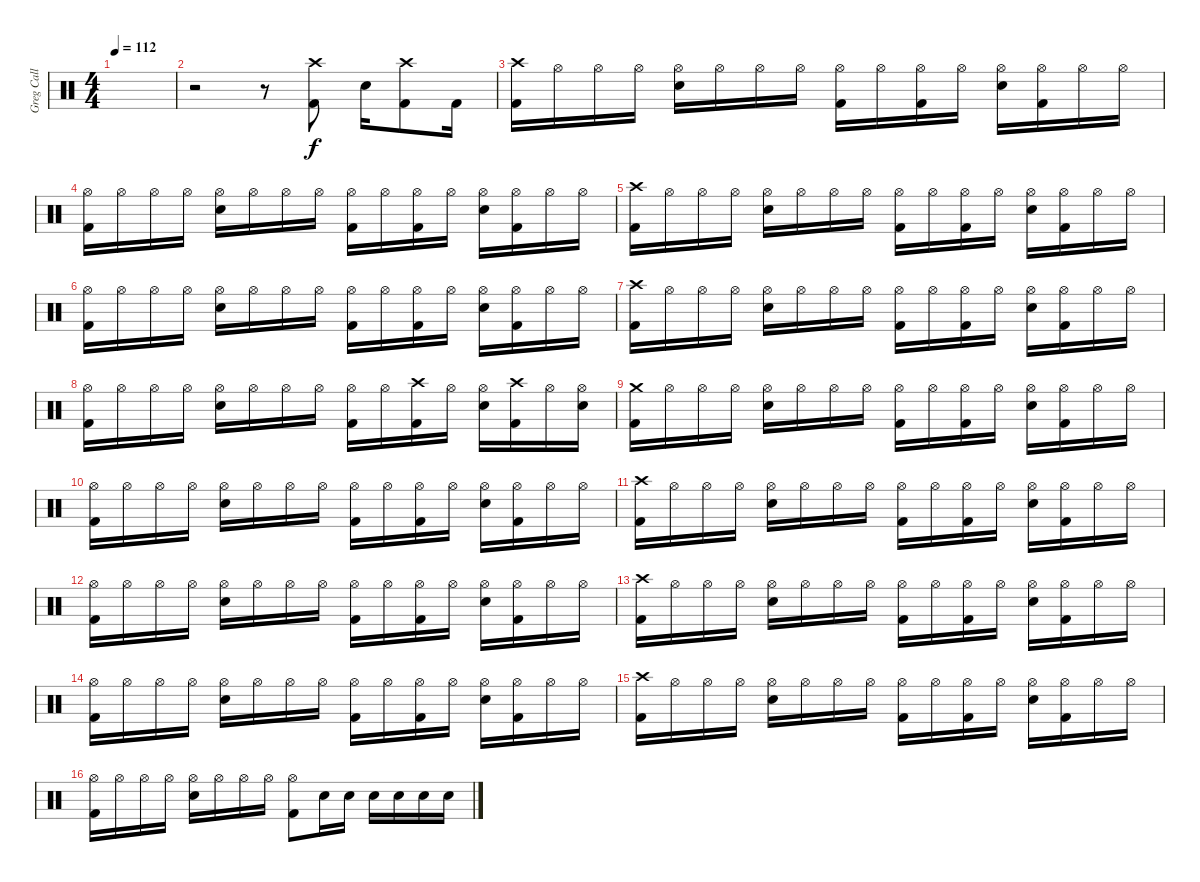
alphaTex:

\track ("Greg Call (Drums)" "Greg Call ") {instrument percussion}
\staff {score}
\articulation defaults
\ts (4 4)
\tempo 112
\clef neutral
\ks c
|
r.2 r.8 ("Crash high (hit)" "Kick (hit) 2").8 "Snare (hit) 2".16 ("Crash high (hit)" "Kick (hit) 2").8 "Kick (hit) 2".16 |
("Crash high (hit)" "Kick (hit) 2").16 "Hi-Hat (open)".16 "Hi-Hat (open)".16 "Hi-Hat (open)".16 ("Hi-Hat (open)" "Snare (hit) 2").16 "Hi-Hat (open)".16 "Hi-Hat (open)".16 "Hi-Hat (open)".16 ("Hi-Hat (open)" "Kick (hit) 2").16 "Hi-Hat (open)".16 ("Hi-Hat (open)" "Kick (hit) 2").16 "Hi-Hat (open)".16 ("Hi-Hat (open)" "Snare (hit) 2").16 ("Hi-Hat (open)" "Kick (hit) 2").16 "Hi-Hat (open)".16 "Hi-Hat (open)".16 |
("Hi-Hat (open)" "Kick (hit) 2").16 "Hi-Hat (open)".16 "Hi-Hat (open)".16 "Hi-Hat (open)".16 ("Hi-Hat (open)" "Snare (hit) 2").16 "Hi-Hat (open)".16 "Hi-Hat (open)".16 "Hi-Hat (open)".16 ("Hi-Hat (open)" "Kick (hit) 2").16 "Hi-Hat (open)".16 ("Hi-Hat (open)" "Kick (hit) 2").16 "Hi-Hat (open)".16 ("Hi-Hat (open)" "Snare (hit) 2").16 ("Hi-Hat (open)" "Kick (hit) 2").16 "Hi-Hat (open)".16 "Hi-Hat (open)".16 |
("Crash high (hit)" "Kick (hit) 2").16 "Hi-Hat (open)".16 "Hi-Hat (open)".16 "Hi-Hat (open)".16 ("Hi-Hat (open)" "Snare (hit) 2").16 "Hi-Hat (open)".16 "Hi-Hat (open)".16 "Hi-Hat (open)".16 ("Hi-Hat (open)" "Kick (hit) 2").16 "Hi-Hat (open)".16 ("Hi-Hat (open)" "Kick (hit) 2").16 "Hi-Hat (open)".16 ("Hi-Hat (open)" "Snare (hit) 2").16 ("Hi-Hat (open)" "Kick (hit) 2").16 "Hi-Hat (open)".16 "Hi-Hat (open)".16 |
("Hi-Hat (open)" "Kick (hit) 2").16 "Hi-Hat (open)".16 "Hi-Hat (open)".16 "Hi-Hat (open)".16 ("Hi-Hat (open)" "Snare (hit) 2").16 "Hi-Hat (open)".16 "Hi-Hat (open)".16 "Hi-Hat (open)".16 ("Hi-Hat (open)" "Kick (hit) 2").16 "Hi-Hat (open)".16 ("Hi-Hat (open)" "Kick (hit) 2").16 "Hi-Hat (open)".16 ("Hi-Hat (open)" "Snare (hit) 2").16 ("Hi-Hat (open)" "Kick (hit) 2").16 "Hi-Hat (open)".16 "Hi-Hat (open)".16 |
("Crash high (hit)" "Kick (hit) 2").16 "Hi-Hat (open)".16 "Hi-Hat (open)".16 "Hi-Hat (open)".16 ("Hi-Hat (open)" "Snare (hit) 2").16 "Hi-Hat (open)".16 "Hi-Hat (open)".16 "Hi-Hat (open)".16 ("Hi-Hat (open)" "Kick (hit) 2").16 "Hi-Hat (open)".16 ("Hi-Hat (open)" "Kick (hit) 2").16 "Hi-Hat (open)".16 ("Hi-Hat (open)" "Snare (hit) 2").16 ("Hi-Hat (open)" "Kick (hit) 2").16 "Hi-Hat (open)".16 "Hi-Hat (open)".16 |
("Hi-Hat (open)" "Kick (hit) 2").16 "Hi-Hat (open)".16 "Hi-Hat (open)".16 "Hi-Hat (open)".16 ("Hi-Hat (open)" "Snare (hit) 2").16 "Hi-Hat (open)".16 "Hi-Hat (open)".16 "Hi-Hat (open)".16 ("Hi-Hat (open)" "Kick (hit) 2").16 "Hi-Hat (open)".16 ("Crash high (hit)" "Kick (hit) 2").16 "Hi-Hat (open)".16 ("Hi-Hat (open)" "Snare (hit) 2").16 ("Crash high (hit)" "Kick (hit) 2").16 "Hi-Hat (open)".16 ("Hi-Hat (open)" "Snare (hit) 2").16 |
("Crash medium (hit)" "Kick (hit) 2").16 "Hi-Hat (open)".16 "Hi-Hat (open)".16 "Hi-Hat (open)".16 ("Hi-Hat (open)" "Snare (hit) 2").16 "Hi-Hat (open)".16 "Hi-Hat (open)".16 "Hi-Hat (open)".16 ("Hi-Hat (open)" "Kick (hit) 2").16 "Hi-Hat (open)".16 ("Hi-Hat (open)" "Kick (hit) 2").16 "Hi-Hat (open)".16 ("Hi-Hat (open)" "Snare (hit) 2").16 ("Hi-Hat (open)" "Kick (hit) 2").16 "Hi-Hat (open)".16 "Hi-Hat (open)".16 |
("Hi-Hat (open)" "Kick (hit) 2").16 "Hi-Hat (open)".16 "Hi-Hat (open)".16 "Hi-Hat (open)".16 ("Hi-Hat (open)" "Snare (hit) 2").16 "Hi-Hat (open)".16 "Hi-Hat (open)".16 "Hi-Hat (open)".16 ("Hi-Hat (open)" "Kick (hit) 2").16 "Hi-Hat (open)".16 ("Hi-Hat (open)" "Kick (hit) 2").16 "Hi-Hat (open)".16 ("Hi-Hat (open)" "Snare (hit) 2").16 ("Hi-Hat (open)" "Kick (hit) 2").16 "Hi-Hat (open)".16 "Hi-Hat (open)".16 |
("Crash high (hit)" "Kick (hit) 2").16 "Hi-Hat (open)".16 "Hi-Hat (open)".16 "Hi-Hat (open)".16 ("Hi-Hat (open)" "Snare (hit) 2").16 "Hi-Hat (open)".16 "Hi-Hat (open)".16 "Hi-Hat (open)".16 ("Hi-Hat (open)" "Kick (hit) 2").16 "Hi-Hat (open)".16 ("Hi-Hat (open)" "Kick (hit) 2").16 "Hi-Hat (open)".16 ("Hi-Hat (open)" "Snare (hit) 2").16 ("Hi-Hat (open)" "Kick (hit) 2").16 "Hi-Hat (open)".16 "Hi-Hat (open)".16 |
("Hi-Hat (open)" "Kick (hit) 2").16 "Hi-Hat (open)".16 "Hi-Hat (open)".16 "Hi-Hat (open)".16 ("Hi-Hat (open)" "Snare (hit) 2").16 "Hi-Hat (open)".16 "Hi-Hat (open)".16 "Hi-Hat (open)".16 ("Hi-Hat (open)" "Kick (hit) 2").16 "Hi-Hat (open)".16 ("Hi-Hat (open)" "Kick (hit) 2").16 "Hi-Hat (open)".16 ("Hi-Hat (open)" "Snare (hit) 2").16 ("Hi-Hat (open)" "Kick (hit) 2").16 "Hi-Hat (open)".16 "Hi-Hat (open)".16 |
("Crash high (hit)" "Kick (hit) 2").16 "Hi-Hat (open)".16 "Hi-Hat (open)".16 "Hi-Hat (open)".16 ("Hi-Hat (open)" "Snare (hit) 2").16 "Hi-Hat (open)".16 "Hi-Hat (open)".16 "Hi-Hat (open)".16 ("Hi-Hat (open)" "Kick (hit) 2").16 "Hi-Hat (open)".16 ("Hi-Hat (open)" "Kick (hit) 2").16 "Hi-Hat (open)".16 ("Hi-Hat (open)" "Snare (hit) 2").16 ("Hi-Hat (open)" "Kick (hit) 2").16 "Hi-Hat (open)".16 "Hi-Hat (open)".16 |
("Hi-Hat (open)" "Kick (hit) 2").16 "Hi-Hat (open)".16 "Hi-Hat (open)".16 "Hi-Hat (open)".16 ("Hi-Hat (open)" "Snare (hit) 2").16 "Hi-Hat (open)".16 "Hi-Hat (open)".16 "Hi-Hat (open)".16 ("Hi-Hat (open)" "Kick (hit) 2").16 "Hi-Hat (open)".16 ("Hi-Hat (open)" "Kick (hit) 2").16 "Hi-Hat (open)".16 ("Hi-Hat (open)" "Snare (hit) 2").16 ("Hi-Hat (open)" "Kick (hit) 2").16 "Hi-Hat (open)".16 "Hi-Hat (open)".16 |
("Crash high (hit)" "Kick (hit) 2").16 "Hi-Hat (open)".16 "Hi-Hat (open)".16 "Hi-Hat (open)".16 ("Hi-Hat (open)" "Snare (hit) 2").16 "Hi-Hat (open)".16 "Hi-Hat (open)".16 "Hi-Hat (open)".16 ("Hi-Hat (open)" "Kick (hit) 2").16 "Hi-Hat (open)".16 ("Hi-Hat (open)" "Kick (hit) 2").16 "Hi-Hat (open)".16 ("Hi-Hat (open)" "Snare (hit) 2").16 ("Hi-Hat (open)" "Kick (hit) 2").16 "Hi-Hat (open)".16 "Hi-Hat (open)".16 |
("Hi-Hat (open)" "Kick (hit) 2").16 "Hi-Hat (open)".16 "Hi-Hat (open)".16 "Hi-Hat (open)".16 ("Hi-Hat (open)" "Snare (hit) 2").16 "Hi-Hat (open)".16 "Hi-Hat (open)".16 "Hi-Hat (open)".16 ("Hi-Hat (open)" "Kick (hit) 2").8 "Snare (hit) 2".16 "Snare (hit) 2".16 "Snare (hit) 2".16 "Snare (hit) 2".16 "Snare (hit) 2".16 "Snare (hit) 2".16
